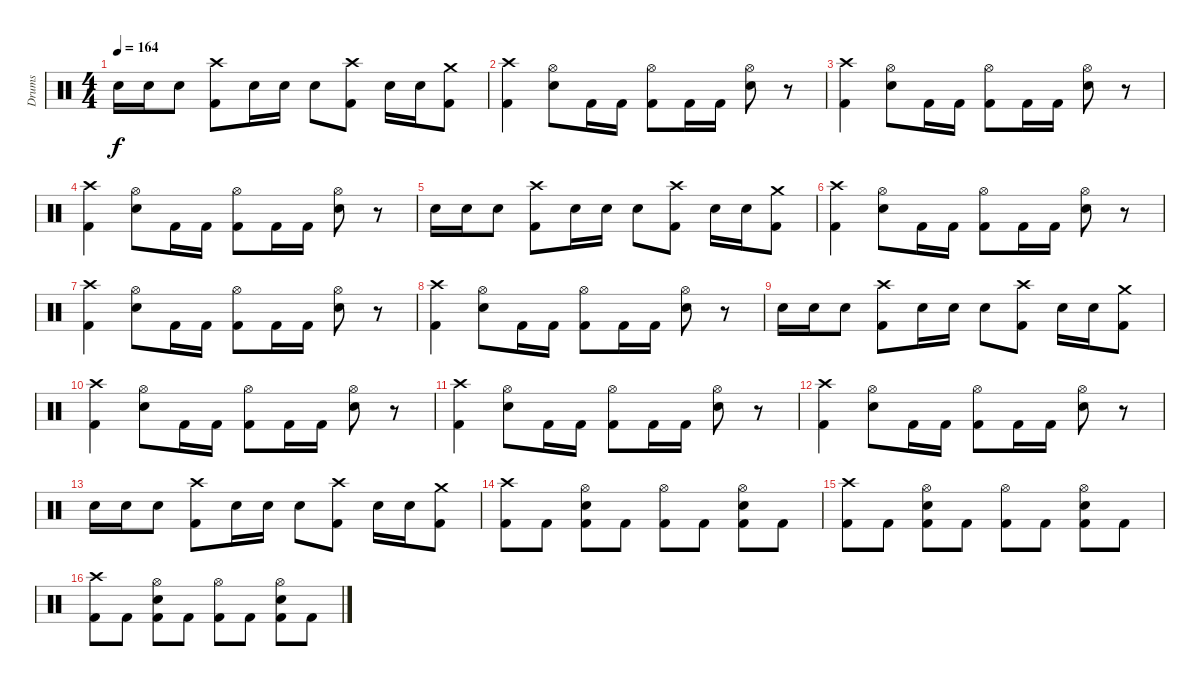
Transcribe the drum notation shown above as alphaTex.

\track ("Drums" "Drums") {instrument percussion}
\staff {score}
\articulation defaults
\ts (4 4)
\tempo 164
\clef neutral
\ks c "Snare (hit) 2".16{dy f} "Snare (hit) 2".16 "Snare (hit) 2".8
("Crash high (hit)" "Kick (hit) 2").8 "Snare (hit) 2".16 "Snare (hit) 2".16 "Snare (hit) 2".8 ("Crash high (hit)" "Kick (hit) 2").8 "Snare (hit) 2".16 "Snare (hit) 2".16 ("Crash medium (hit)" "Kick (hit) 2").8 |
("Crash high (hit)" "Kick (hit) 2").4 ("Hi-Hat (open)" "Snare (hit) 2").8 "Kick (hit) 2".16 "Kick (hit) 2".16 ("Hi-Hat (open)" "Kick (hit) 2").8 "Kick (hit) 2".16 "Kick (hit) 2".16 ("Hi-Hat (open)" "Snare (hit) 2").8 r.8 |
("Crash high (hit)" "Kick (hit) 2").4 ("Hi-Hat (open)" "Snare (hit) 2").8 "Kick (hit) 2".16 "Kick (hit) 2".16 ("Hi-Hat (open)" "Kick (hit) 2").8 "Kick (hit) 2".16 "Kick (hit) 2".16 ("Hi-Hat (open)" "Snare (hit) 2").8 r.8 |
("Crash high (hit)" "Kick (hit) 2").4 ("Hi-Hat (open)" "Snare (hit) 2").8 "Kick (hit) 2".16 "Kick (hit) 2".16 ("Hi-Hat (open)" "Kick (hit) 2").8 "Kick (hit) 2".16 "Kick (hit) 2".16 ("Hi-Hat (open)" "Snare (hit) 2").8 r.8 |
"Snare (hit) 2".16 "Snare (hit) 2".16 "Snare (hit) 2".8 ("Crash high (hit)" "Kick (hit) 2").8 "Snare (hit) 2".16 "Snare (hit) 2".16 "Snare (hit) 2".8 ("Crash high (hit)" "Kick (hit) 2").8 "Snare (hit) 2".16 "Snare (hit) 2".16 ("Crash medium (hit)" "Kick (hit) 2").8 |
("Crash high (hit)" "Kick (hit) 2").4 ("Hi-Hat (open)" "Snare (hit) 2").8 "Kick (hit) 2".16 "Kick (hit) 2".16 ("Hi-Hat (open)" "Kick (hit) 2").8 "Kick (hit) 2".16 "Kick (hit) 2".16 ("Hi-Hat (open)" "Snare (hit) 2").8 r.8 |
("Crash high (hit)" "Kick (hit) 2").4 ("Hi-Hat (open)" "Snare (hit) 2").8 "Kick (hit) 2".16 "Kick (hit) 2".16 ("Hi-Hat (open)" "Kick (hit) 2").8 "Kick (hit) 2".16 "Kick (hit) 2".16 ("Hi-Hat (open)" "Snare (hit) 2").8 r.8 |
("Crash high (hit)" "Kick (hit) 2").4 ("Hi-Hat (open)" "Snare (hit) 2").8 "Kick (hit) 2".16 "Kick (hit) 2".16 ("Hi-Hat (open)" "Kick (hit) 2").8 "Kick (hit) 2".16 "Kick (hit) 2".16 ("Hi-Hat (open)" "Snare (hit) 2").8 r.8 |
"Snare (hit) 2".16 "Snare (hit) 2".16 "Snare (hit) 2".8 ("Crash high (hit)" "Kick (hit) 2").8 "Snare (hit) 2".16 "Snare (hit) 2".16 "Snare (hit) 2".8 ("Crash high (hit)" "Kick (hit) 2").8 "Snare (hit) 2".16 "Snare (hit) 2".16 ("Crash medium (hit)" "Kick (hit) 2").8 |
("Crash high (hit)" "Kick (hit) 2").4 ("Hi-Hat (open)" "Snare (hit) 2").8 "Kick (hit) 2".16 "Kick (hit) 2".16 ("Hi-Hat (open)" "Kick (hit) 2").8 "Kick (hit) 2".16 "Kick (hit) 2".16 ("Hi-Hat (open)" "Snare (hit) 2").8 r.8 |
("Crash high (hit)" "Kick (hit) 2").4 ("Hi-Hat (open)" "Snare (hit) 2").8 "Kick (hit) 2".16 "Kick (hit) 2".16 ("Hi-Hat (open)" "Kick (hit) 2").8 "Kick (hit) 2".16 "Kick (hit) 2".16 ("Hi-Hat (open)" "Snare (hit) 2").8 r.8 |
("Crash high (hit)" "Kick (hit) 2").4 ("Hi-Hat (open)" "Snare (hit) 2").8 "Kick (hit) 2".16 "Kick (hit) 2".16 ("Hi-Hat (open)" "Kick (hit) 2").8 "Kick (hit) 2".16 "Kick (hit) 2".16 ("Hi-Hat (open)" "Snare (hit) 2").8 r.8 |
"Snare (hit) 2".16 "Snare (hit) 2".16 "Snare (hit) 2".8 ("Crash high (hit)" "Kick (hit) 2").8 "Snare (hit) 2".16 "Snare (hit) 2".16 "Snare (hit) 2".8 ("Crash high (hit)" "Kick (hit) 2").8 "Snare (hit) 2".16 "Snare (hit) 2".16 ("Crash medium (hit)" "Kick (hit) 2").8 |
("Crash high (hit)" "Kick (hit) 2").8 "Kick (hit) 2".8 ("Hi-Hat (open)" "Snare (hit) 2" "Kick (hit) 2").8 "Kick (hit) 2".8 ("Hi-Hat (open)" "Kick (hit) 2").8 "Kick (hit) 2".8 ("Hi-Hat (open)" "Snare (hit) 2" "Kick (hit) 2").8 "Kick (hit) 2".8 |
("Crash high (hit)" "Kick (hit) 2").8 "Kick (hit) 2".8 ("Hi-Hat (open)" "Snare (hit) 2" "Kick (hit) 2").8 "Kick (hit) 2".8 ("Hi-Hat (open)" "Kick (hit) 2").8 "Kick (hit) 2".8 ("Hi-Hat (open)" "Snare (hit) 2" "Kick (hit) 2").8 "Kick (hit) 2".8 |
("Crash high (hit)" "Kick (hit) 2").8 "Kick (hit) 2".8 ("Hi-Hat (open)" "Snare (hit) 2" "Kick (hit) 2").8 "Kick (hit) 2".8 ("Hi-Hat (open)" "Kick (hit) 2").8 "Kick (hit) 2".8 ("Hi-Hat (open)" "Snare (hit) 2" "Kick (hit) 2").8 "Kick (hit) 2".8
